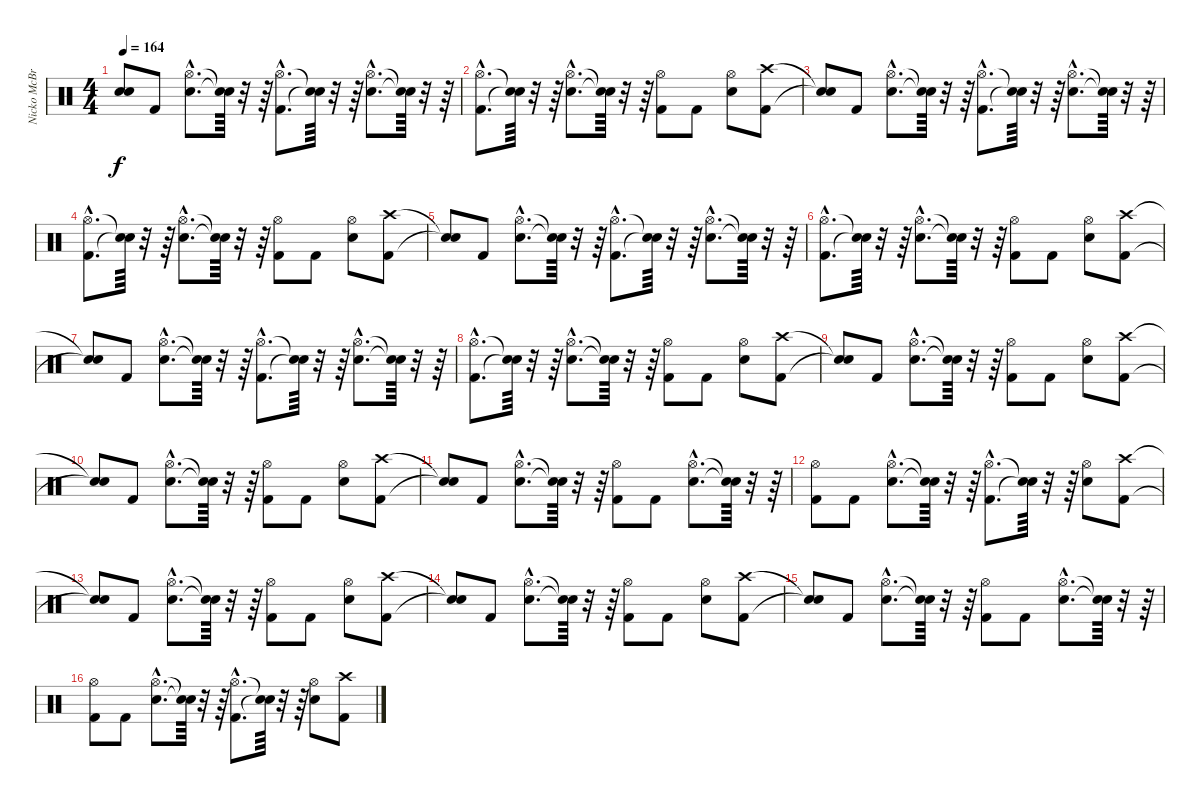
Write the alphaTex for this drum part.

\track ("Nicko McBrian (Drums)" "Nicko McBr") {instrument percussion}
\staff {score}
\articulation defaults
\ts (4 4)
\tempo 164
\clef neutral
\ks c
("Snare (hit)"{t} "Snare (hit)"{t}).8{dy f} "Kick (hit) 2".8 ("Snare (hit) 2"{hac} "Hi-Hat (open)"{hac}).8{d} ("Snare (hit)"{t} "Snare (hit)"{t}).64 r.32 r.64 ("Kick (hit) 2"{hac} "Hi-Hat (open)"{hac}).8{d} ("Snare (hit)"{t} "Snare (hit)"{t}).64 r.32 r.64 ("Snare (hit) 2"{hac} "Hi-Hat (open)"{hac}).8{d} ("Snare (hit)"{t} "Snare (hit)"{t}).64 r.32 r.64 |
("Kick (hit) 2"{hac} "Hi-Hat (open)"{hac}).8{d} ("Snare (hit)"{t} "Snare (hit)"{t}).64 r.32 r.64 ("Snare (hit) 2"{hac} "Hi-Hat (open)"{hac}).8{d} ("Snare (hit)"{t} "Snare (hit)"{t}).64 r.32 r.64 ("Kick (hit) 2" "Hi-Hat (open)").8 "Kick (hit) 2".8 ("Snare (hit) 2" "Hi-Hat (open)").8 ("Kick (hit) 2" "Crash high (hit)").8 |
("Snare (hit)"{t} "Snare (hit)"{t}).8 "Kick (hit) 2".8 ("Snare (hit) 2"{hac} "Hi-Hat (open)"{hac}).8{d} ("Snare (hit)"{t} "Snare (hit)"{t}).64 r.32 r.64 ("Kick (hit) 2"{hac} "Hi-Hat (open)"{hac}).8{d} ("Snare (hit)"{t} "Snare (hit)"{t}).64 r.32 r.64 ("Snare (hit) 2"{hac} "Hi-Hat (open)"{hac}).8{d} ("Snare (hit)"{t} "Snare (hit)"{t}).64 r.32 r.64 |
("Kick (hit) 2"{hac} "Hi-Hat (open)"{hac}).8{d} ("Snare (hit)"{t} "Snare (hit)"{t}).64 r.32 r.64 ("Snare (hit) 2"{hac} "Hi-Hat (open)"{hac}).8{d} ("Snare (hit)"{t} "Snare (hit)"{t}).64 r.32 r.64 ("Kick (hit) 2" "Hi-Hat (open)").8 "Kick (hit) 2".8 ("Snare (hit) 2" "Hi-Hat (open)").8 ("Kick (hit) 2" "Crash high (hit)").8 |
("Snare (hit)"{t} "Snare (hit)"{t}).8 "Kick (hit) 2".8 ("Snare (hit) 2"{hac} "Hi-Hat (open)"{hac}).8{d} ("Snare (hit)"{t} "Snare (hit)"{t}).64 r.32 r.64 ("Kick (hit) 2"{hac} "Hi-Hat (open)"{hac}).8{d} ("Snare (hit)"{t} "Snare (hit)"{t}).64 r.32 r.64 ("Snare (hit) 2"{hac} "Hi-Hat (open)"{hac}).8{d} ("Snare (hit)"{t} "Snare (hit)"{t}).64 r.32 r.64 |
("Kick (hit) 2"{hac} "Hi-Hat (open)"{hac}).8{d} ("Snare (hit)"{t} "Snare (hit)"{t}).64 r.32 r.64 ("Snare (hit) 2"{hac} "Hi-Hat (open)"{hac}).8{d} ("Snare (hit)"{t} "Snare (hit)"{t}).64 r.32 r.64 ("Kick (hit) 2" "Hi-Hat (open)").8 "Kick (hit) 2".8 ("Snare (hit) 2" "Hi-Hat (open)").8 ("Kick (hit) 2" "Crash high (hit)").8 |
("Snare (hit)"{t} "Snare (hit)"{t}).8 "Kick (hit) 2".8 ("Snare (hit) 2"{hac} "Hi-Hat (open)"{hac}).8{d} ("Snare (hit)"{t} "Snare (hit)"{t}).64 r.32 r.64 ("Kick (hit) 2"{hac} "Hi-Hat (open)"{hac}).8{d} ("Snare (hit)"{t} "Snare (hit)"{t}).64 r.32 r.64 ("Snare (hit) 2"{hac} "Hi-Hat (open)"{hac}).8{d} ("Snare (hit)"{t} "Snare (hit)"{t}).64 r.32 r.64 |
("Kick (hit) 2"{hac} "Hi-Hat (open)"{hac}).8{d} ("Snare (hit)"{t} "Snare (hit)"{t}).64 r.32 r.64 ("Snare (hit) 2"{hac} "Hi-Hat (open)"{hac}).8{d} ("Snare (hit)"{t} "Snare (hit)"{t}).64 r.32 r.64 ("Kick (hit) 2" "Hi-Hat (open)").8 "Kick (hit) 2".8 ("Snare (hit) 2" "Hi-Hat (open)").8 ("Kick (hit) 2" "Crash high (hit)").8 |
("Snare (hit)"{t} "Snare (hit)"{t}).8 "Kick (hit) 2".8 ("Snare (hit) 2"{hac} "Hi-Hat (open)"{hac}).8{d} ("Snare (hit)"{t} "Snare (hit)"{t}).64 r.32 r.64 ("Kick (hit) 2" "Hi-Hat (open)").8 "Kick (hit) 2".8 ("Snare (hit) 2" "Hi-Hat (open)").8 ("Kick (hit) 2" "Crash high (hit)").8 |
("Snare (hit)"{t} "Snare (hit)"{t}).8 "Kick (hit) 2".8 ("Snare (hit) 2"{hac} "Hi-Hat (open)"{hac}).8{d} ("Snare (hit)"{t} "Snare (hit)"{t}).64 r.32 r.64 ("Kick (hit) 2" "Hi-Hat (open)").8 "Kick (hit) 2".8 ("Snare (hit) 2" "Hi-Hat (open)").8 ("Kick (hit) 2" "Crash high (hit)").8 |
("Snare (hit)"{t} "Snare (hit)"{t}).8 "Kick (hit) 2".8 ("Snare (hit) 2"{hac} "Hi-Hat (open)"{hac}).8{d} ("Snare (hit)"{t} "Snare (hit)"{t}).64 r.32 r.64 ("Kick (hit) 2" "Hi-Hat (open)").8 "Kick (hit) 2".8 ("Snare (hit) 2"{hac} "Hi-Hat (open)"{hac}).8{d} ("Snare (hit)"{t} "Snare (hit)"{t}).64 r.32 r.64 |
("Kick (hit) 2" "Hi-Hat (open)").8 "Kick (hit) 2".8 ("Snare (hit) 2"{hac} "Hi-Hat (open)"{hac}).8{d} ("Snare (hit)"{t} "Snare (hit)"{t}).64 r.32 r.64 ("Kick (hit) 2"{hac} "Hi-Hat (open)"{hac}).8{d} ("Snare (hit)"{t} "Snare (hit)"{t}).64 r.32 r.64 ("Snare (hit) 2" "Hi-Hat (open)").8 ("Kick (hit) 2" "Crash high (hit)").8 |
("Snare (hit)"{t} "Snare (hit)"{t}).8 "Kick (hit) 2".8 ("Snare (hit) 2"{hac} "Hi-Hat (open)"{hac}).8{d} ("Snare (hit)"{t} "Snare (hit)"{t}).64 r.32 r.64 ("Kick (hit) 2" "Hi-Hat (open)").8 "Kick (hit) 2".8 ("Snare (hit) 2" "Hi-Hat (open)").8 ("Kick (hit) 2" "Crash high (hit)").8 |
("Snare (hit)"{t} "Snare (hit)"{t}).8 "Kick (hit) 2".8 ("Snare (hit) 2"{hac} "Hi-Hat (open)"{hac}).8{d} ("Snare (hit)"{t} "Snare (hit)"{t}).64 r.32 r.64 ("Kick (hit) 2" "Hi-Hat (open)").8 "Kick (hit) 2".8 ("Snare (hit) 2" "Hi-Hat (open)").8 ("Kick (hit) 2" "Crash high (hit)").8 |
("Snare (hit)"{t} "Snare (hit)"{t}).8 "Kick (hit) 2".8 ("Snare (hit) 2"{hac} "Hi-Hat (open)"{hac}).8{d} ("Snare (hit)"{t} "Snare (hit)"{t}).64 r.32 r.64 ("Kick (hit) 2" "Hi-Hat (open)").8 "Kick (hit) 2".8 ("Snare (hit) 2"{hac} "Hi-Hat (open)"{hac}).8{d} ("Snare (hit)"{t} "Snare (hit)"{t}).64 r.32 r.64 |
("Kick (hit) 2" "Hi-Hat (open)").8 "Kick (hit) 2".8 ("Snare (hit) 2"{hac} "Hi-Hat (open)"{hac}).8{d} ("Snare (hit)"{t} "Snare (hit)"{t}).64 r.32 r.64 ("Kick (hit) 2"{hac} "Hi-Hat (open)"{hac}).8{d} ("Snare (hit)"{t} "Snare (hit)"{t}).64 r.32 r.64 ("Snare (hit) 2" "Hi-Hat (open)").8 ("Kick (hit) 2" "Crash high (hit)").8
